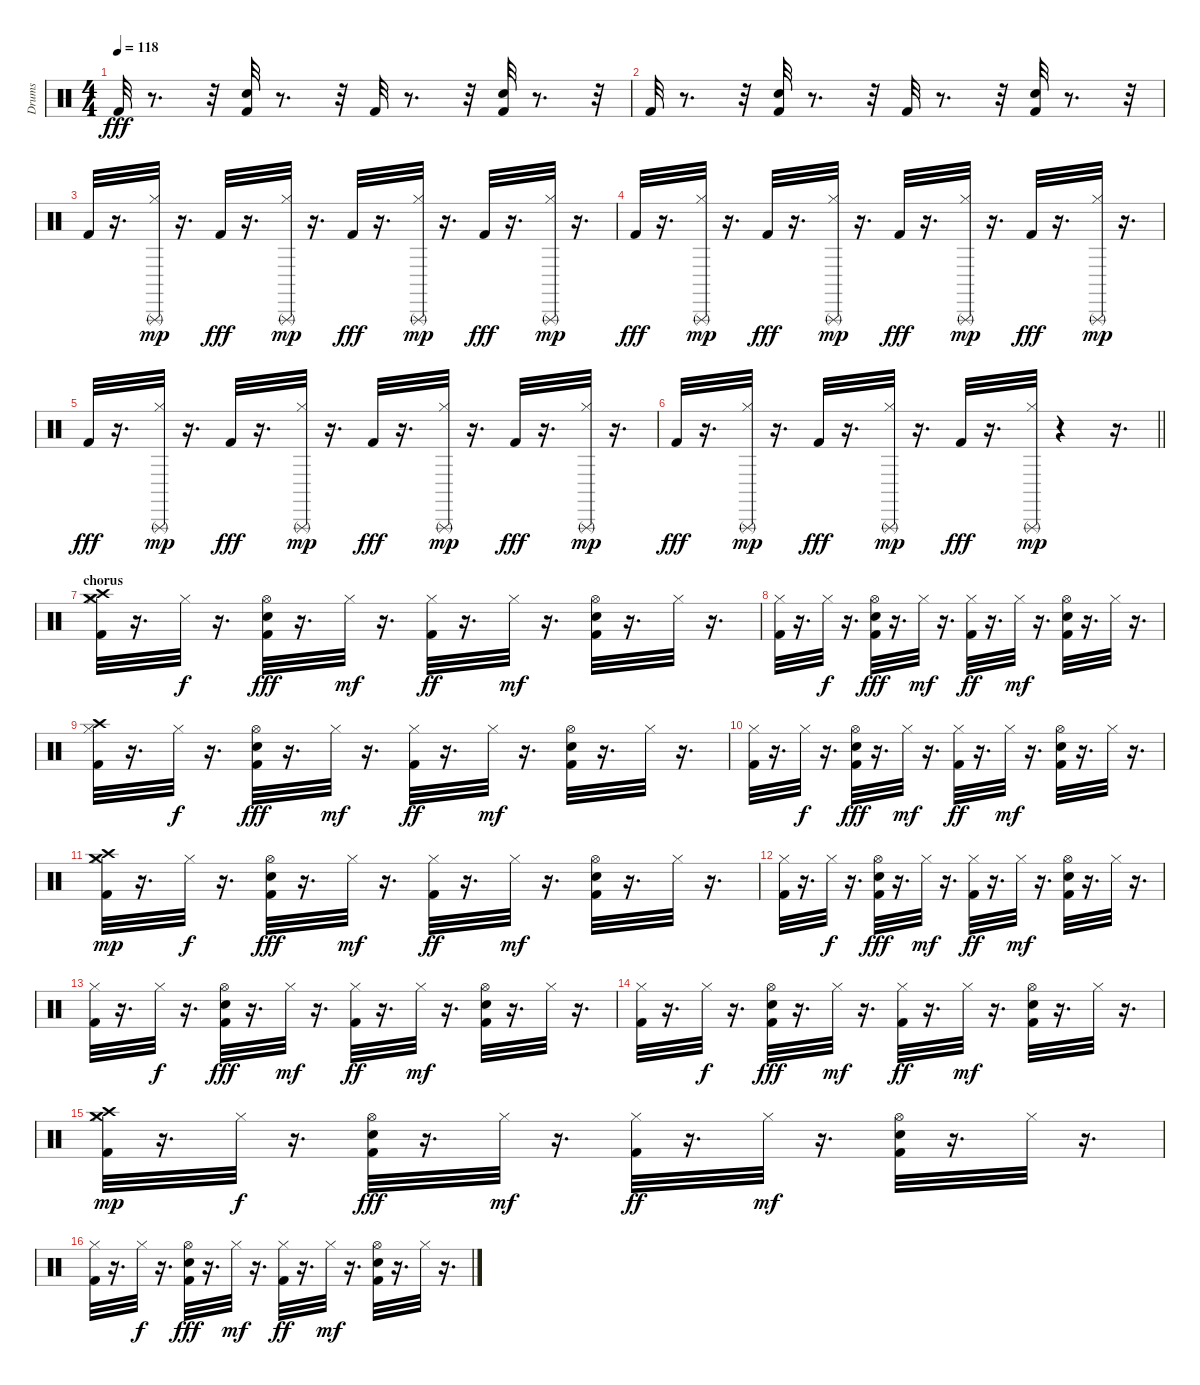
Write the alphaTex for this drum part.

\track ("Drums" "Drums") {instrument percussion}
\staff {score}
\articulation defaults
\ts (4 4)
\tempo 118
\clef neutral
\ks c "Kick (hit) 2".32{dy fff}
r.8{d} r.32 ("Kick (hit) 2" "Electric Snare (hit)").32 r.8{d} r.32 "Kick (hit) 2".32 r.8{d} r.32 ("Kick (hit) 2" "Electric Snare (hit)").32 r.8{d} r.32 |
"Kick (hit) 2".32 r.8{d} r.32 ("Kick (hit) 2" "Electric Snare (hit)").32 r.8{d} r.32 "Kick (hit) 2".32 r.8{d} r.32 ("Kick (hit) 2" "Electric Snare (hit)").32 r.8{d} r.32 |
"Kick (hit) 2".32 r.16{d} ("Hi-Hat (closed)" "Triangle (rnute)").32{dy mp} r.16{d} "Kick (hit) 2".32{dy fff} r.16{d} ("Hi-Hat (closed)" "Triangle (rnute)").32{dy mp} r.16{d} "Kick (hit) 2".32{dy fff} r.16{d} ("Hi-Hat (closed)" "Triangle (rnute)").32{dy mp} r.16{d} "Kick (hit) 2".32{dy fff} r.16{d} ("Hi-Hat (closed)" "Triangle (rnute)").32{dy mp} r.16{d} |
"Kick (hit) 2".32{dy fff} r.16{d} ("Hi-Hat (closed)" "Triangle (rnute)").32{dy mp} r.16{d} "Kick (hit) 2".32{dy fff} r.16{d} ("Hi-Hat (closed)" "Triangle (rnute)").32{dy mp} r.16{d} "Kick (hit) 2".32{dy fff} r.16{d} ("Hi-Hat (closed)" "Triangle (rnute)").32{dy mp} r.16{d} "Kick (hit) 2".32{dy fff} r.16{d} ("Hi-Hat (closed)" "Triangle (rnute)").32{dy mp} r.16{d} |
"Kick (hit) 2".32{dy fff} r.16{d} ("Hi-Hat (closed)" "Triangle (rnute)").32{dy mp} r.16{d} "Kick (hit) 2".32{dy fff} r.16{d} ("Hi-Hat (closed)" "Triangle (rnute)").32{dy mp} r.16{d} "Kick (hit) 2".32{dy fff} r.16{d} ("Hi-Hat (closed)" "Triangle (rnute)").32{dy mp} r.16{d} "Kick (hit) 2".32{dy fff} r.16{d} ("Hi-Hat (closed)" "Triangle (rnute)").32{dy mp} r.16{d} |
\barLineRight lightlight "Kick (hit) 2".32{dy fff}
r.16{d} ("Hi-Hat (closed)" "Triangle (rnute)").32{dy mp} r.16{d} "Kick (hit) 2".32{dy fff} r.16{d} ("Hi-Hat (closed)" "Triangle (rnute)").32{dy mp} r.16{d} "Kick (hit) 2".32{dy fff} r.16{d} ("Hi-Hat (closed)" "Triangle (rnute)").32{dy mp} r.4 r.16{d} |
\section ("" "chorus")
("Kick (hit) 2" "Hi-Hat (closed)" "Crash medium (hit)" "Crash high (hit)").32 r.16{d} "Hi-Hat (closed)".32{dy f} r.16{d} ("Kick (hit) 2" "Electric Snare (hit)" "Hi-Hat (open)").32{dy fff} r.16{d} "Hi-Hat (closed)".32{dy mf} r.16{d} ("Kick (hit) 2" "Hi-Hat (closed)").32{dy ff} r.16{d} "Hi-Hat (closed)".32{dy mf} r.16{d} ("Kick (hit) 2" "Electric Snare (hit)" "Hi-Hat (open)").32 r.16{d} "Hi-Hat (closed)".32 r.16{d} |
("Kick (hit) 2" "Hi-Hat (closed)").32 r.16{d} "Hi-Hat (closed)".32{dy f} r.16{d} ("Kick (hit) 2" "Electric Snare (hit)" "Hi-Hat (open)").32{dy fff} r.16{d} "Hi-Hat (closed)".32{dy mf} r.16{d} ("Kick (hit) 2" "Hi-Hat (closed)").32{dy ff} r.16{d} "Hi-Hat (closed)".32{dy mf} r.16{d} ("Kick (hit) 2" "Electric Snare (hit)" "Hi-Hat (open)").32 r.16{d} "Hi-Hat (closed)".32 r.16{d} |
("Kick (hit) 2" "Hi-Hat (closed)" "Crash high (hit)").32 r.16{d} "Hi-Hat (closed)".32{dy f} r.16{d} ("Kick (hit) 2" "Electric Snare (hit)" "Hi-Hat (open)").32{dy fff} r.16{d} "Hi-Hat (closed)".32{dy mf} r.16{d} ("Kick (hit) 2" "Hi-Hat (closed)").32{dy ff} r.16{d} "Hi-Hat (closed)".32{dy mf} r.16{d} ("Kick (hit) 2" "Electric Snare (hit)" "Hi-Hat (open)").32 r.16{d} "Hi-Hat (closed)".32 r.16{d} |
("Kick (hit) 2" "Hi-Hat (closed)").32 r.16{d} "Hi-Hat (closed)".32{dy f} r.16{d} ("Kick (hit) 2" "Electric Snare (hit)" "Hi-Hat (open)").32{dy fff} r.16{d} "Hi-Hat (closed)".32{dy mf} r.16{d} ("Kick (hit) 2" "Hi-Hat (closed)").32{dy ff} r.16{d} "Hi-Hat (closed)".32{dy mf} r.16{d} ("Kick (hit) 2" "Electric Snare (hit)" "Hi-Hat (open)").32 r.16{d} "Hi-Hat (closed)".32 r.16{d} |
("Kick (hit) 2" "Hi-Hat (closed)" "Crash medium (hit)" "Crash high (hit)").32{dy mp} r.16{d} "Hi-Hat (closed)".32{dy f} r.16{d} ("Kick (hit) 2" "Electric Snare (hit)" "Hi-Hat (open)").32{dy fff} r.16{d} "Hi-Hat (closed)".32{dy mf} r.16{d} ("Kick (hit) 2" "Hi-Hat (closed)").32{dy ff} r.16{d} "Hi-Hat (closed)".32{dy mf} r.16{d} ("Kick (hit) 2" "Electric Snare (hit)" "Hi-Hat (open)").32 r.16{d} "Hi-Hat (closed)".32 r.16{d} |
("Kick (hit) 2" "Hi-Hat (closed)").32 r.16{d} "Hi-Hat (closed)".32{dy f} r.16{d} ("Kick (hit) 2" "Electric Snare (hit)" "Hi-Hat (open)").32{dy fff} r.16{d} "Hi-Hat (closed)".32{dy mf} r.16{d} ("Kick (hit) 2" "Hi-Hat (closed)").32{dy ff} r.16{d} "Hi-Hat (closed)".32{dy mf} r.16{d} ("Kick (hit) 2" "Electric Snare (hit)" "Hi-Hat (open)").32 r.16{d} "Hi-Hat (closed)".32 r.16{d} |
("Kick (hit) 2" "Hi-Hat (closed)").32 r.16{d} "Hi-Hat (closed)".32{dy f} r.16{d} ("Kick (hit) 2" "Electric Snare (hit)" "Hi-Hat (open)").32{dy fff} r.16{d} "Hi-Hat (closed)".32{dy mf} r.16{d} ("Kick (hit) 2" "Hi-Hat (closed)").32{dy ff} r.16{d} "Hi-Hat (closed)".32{dy mf} r.16{d} ("Kick (hit) 2" "Electric Snare (hit)" "Hi-Hat (open)").32 r.16{d} "Hi-Hat (closed)".32 r.16{d} |
("Kick (hit) 2" "Hi-Hat (closed)").32 r.16{d} "Hi-Hat (closed)".32{dy f} r.16{d} ("Kick (hit) 2" "Electric Snare (hit)" "Hi-Hat (open)").32{dy fff} r.16{d} "Hi-Hat (closed)".32{dy mf} r.16{d} ("Kick (hit) 2" "Hi-Hat (closed)").32{dy ff} r.16{d} "Hi-Hat (closed)".32{dy mf} r.16{d} ("Kick (hit) 2" "Electric Snare (hit)" "Hi-Hat (open)").32 r.16{d} "Hi-Hat (closed)".32 r.16{d} |
("Kick (hit) 2" "Hi-Hat (closed)" "Crash medium (hit)" "Crash high (hit)").32{dy mp} r.16{d} "Hi-Hat (closed)".32{dy f} r.16{d} ("Kick (hit) 2" "Electric Snare (hit)" "Hi-Hat (open)").32{dy fff} r.16{d} "Hi-Hat (closed)".32{dy mf} r.16{d} ("Kick (hit) 2" "Hi-Hat (closed)").32{dy ff} r.16{d} "Hi-Hat (closed)".32{dy mf} r.16{d} ("Kick (hit) 2" "Electric Snare (hit)" "Hi-Hat (open)").32 r.16{d} "Hi-Hat (closed)".32 r.16{d} |
("Kick (hit) 2" "Hi-Hat (closed)").32 r.16{d} "Hi-Hat (closed)".32{dy f} r.16{d} ("Kick (hit) 2" "Electric Snare (hit)" "Hi-Hat (open)").32{dy fff} r.16{d} "Hi-Hat (closed)".32{dy mf} r.16{d} ("Kick (hit) 2" "Hi-Hat (closed)").32{dy ff} r.16{d} "Hi-Hat (closed)".32{dy mf} r.16{d} ("Kick (hit) 2" "Electric Snare (hit)" "Hi-Hat (open)").32 r.16{d} "Hi-Hat (closed)".32 r.16{d}
